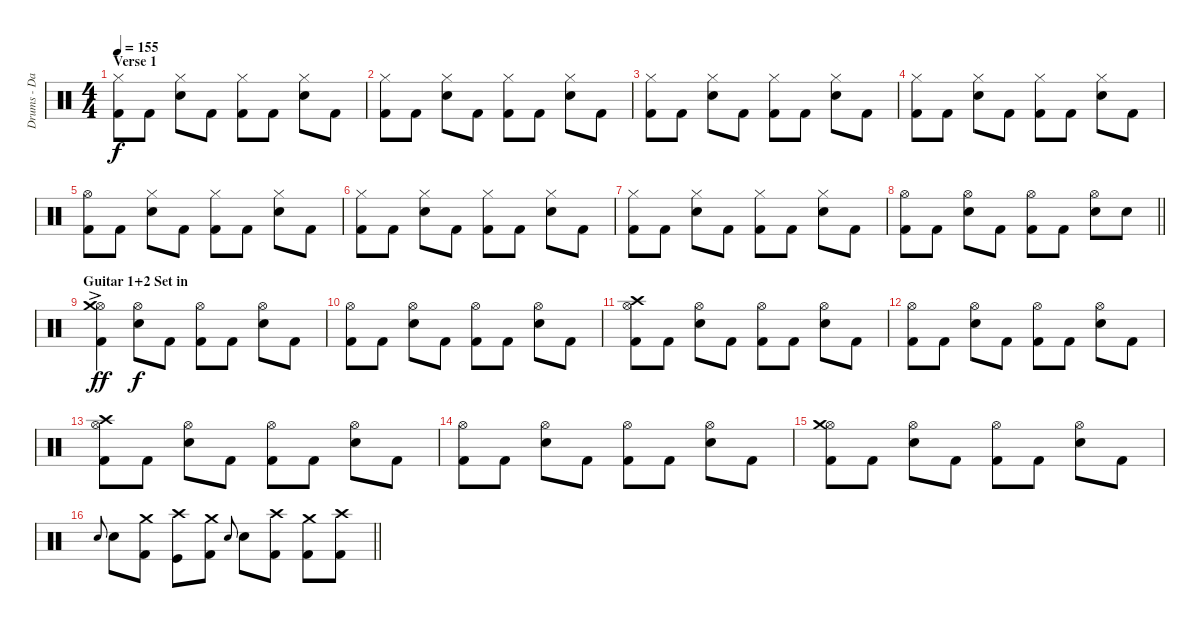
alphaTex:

\track ("Drums - Daniel Adair" "Drums - Da") {instrument percussion bank 1}
\staff {score}
\articulation defaults
\ts (4 4)
\section ("" "Verse 1")
\tempo 155
\clef neutral
\ks c
("Hi-Hat (closed)" "Kick (hit) 2").8{dy f} "Kick (hit) 2".8 ("Hi-Hat (closed)" "Snare (hit) 2").8 "Kick (hit) 2".8 ("Hi-Hat (closed)" "Kick (hit) 2").8 "Kick (hit) 2".8 ("Hi-Hat (closed)" "Snare (hit) 2").8 "Kick (hit) 2".8 |
("Hi-Hat (closed)" "Kick (hit) 2").8 "Kick (hit) 2".8 ("Hi-Hat (closed)" "Snare (hit) 2").8 "Kick (hit) 2".8 ("Hi-Hat (closed)" "Kick (hit) 2").8 "Kick (hit) 2".8 ("Hi-Hat (closed)" "Snare (hit) 2").8 "Kick (hit) 2".8 |
("Hi-Hat (closed)" "Kick (hit) 2").8 "Kick (hit) 2".8 ("Hi-Hat (closed)" "Snare (hit) 2").8 "Kick (hit) 2".8 ("Hi-Hat (closed)" "Kick (hit) 2").8 "Kick (hit) 2".8 ("Hi-Hat (closed)" "Snare (hit) 2").8 "Kick (hit) 2".8 |
("Hi-Hat (closed)" "Kick (hit) 2").8 "Kick (hit) 2".8 ("Hi-Hat (closed)" "Snare (hit) 2").8 "Kick (hit) 2".8 ("Hi-Hat (closed)" "Kick (hit) 2").8 "Kick (hit) 2".8 ("Hi-Hat (closed)" "Snare (hit) 2").8 "Kick (hit) 2".8 |
("Hi-Hat (open)" "Kick (hit) 2").8 "Kick (hit) 2".8 ("Hi-Hat (closed)" "Snare (hit) 2").8 "Kick (hit) 2".8 ("Hi-Hat (closed)" "Kick (hit) 2").8 "Kick (hit) 2".8 ("Hi-Hat (closed)" "Snare (hit) 2").8 "Kick (hit) 2".8 |
("Hi-Hat (closed)" "Kick (hit) 2").8 "Kick (hit) 2".8 ("Hi-Hat (closed)" "Snare (hit) 2").8 "Kick (hit) 2".8 ("Hi-Hat (closed)" "Kick (hit) 2").8 "Kick (hit) 2".8 ("Hi-Hat (closed)" "Snare (hit) 2").8 "Kick (hit) 2".8 |
("Hi-Hat (closed)" "Kick (hit) 2").8 "Kick (hit) 2".8 ("Hi-Hat (closed)" "Snare (hit) 2").8 "Kick (hit) 2".8 ("Hi-Hat (closed)" "Kick (hit) 2").8 "Kick (hit) 2".8 ("Hi-Hat (closed)" "Snare (hit) 2").8 "Kick (hit) 2".8 |
\barLineRight lightlight
("Hi-Hat (open)" "Kick (hit) 2").8 "Kick (hit) 2".8 ("Hi-Hat (open)" "Snare (hit) 2").8 "Kick (hit) 2".8 ("Hi-Hat (open)" "Kick (hit) 2").8 "Kick (hit) 2".8 ("Hi-Hat (open)" "Snare (hit) 2").8 "Snare (hit) 2".8 |
\section ("" "Guitar 1+2 Set in")
("Hi-Hat (open)"{ac} "Crash medium (hit)" "Kick (hit) 2").4{dy ff} ("Hi-Hat (open)" "Snare (hit) 2").8{dy f} "Kick (hit) 2".8 ("Hi-Hat (open)" "Kick (hit) 2").8 "Kick (hit) 2".8 ("Hi-Hat (open)" "Snare (hit) 2").8 "Kick (hit) 2".8 |
("Hi-Hat (open)" "Kick (hit) 2").8 "Kick (hit) 2".8 ("Hi-Hat (open)" "Snare (hit) 2").8 "Kick (hit) 2".8 ("Hi-Hat (open)" "Kick (hit) 2").8 "Kick (hit) 2".8 ("Hi-Hat (open)" "Snare (hit) 2").8 "Kick (hit) 2".8 |
("Hi-Hat (open)" "Crash high (hit)" "Kick (hit) 2").8 "Kick (hit) 2".8 ("Hi-Hat (open)" "Snare (hit) 2").8 "Kick (hit) 2".8 ("Hi-Hat (open)" "Kick (hit) 2").8 "Kick (hit) 2".8 ("Hi-Hat (open)" "Snare (hit) 2").8 "Kick (hit) 2".8 |
("Hi-Hat (open)" "Kick (hit) 2").8 "Kick (hit) 2".8 ("Hi-Hat (open)" "Snare (hit) 2").8 "Kick (hit) 2".8 ("Hi-Hat (open)" "Kick (hit) 2").8 "Kick (hit) 2".8 ("Hi-Hat (open)" "Snare (hit) 2").8 "Kick (hit) 2".8 |
("Hi-Hat (open)" "Crash high (hit)" "Kick (hit) 2").8 "Kick (hit) 2".8 ("Hi-Hat (open)" "Snare (hit) 2").8 "Kick (hit) 2".8 ("Hi-Hat (open)" "Kick (hit) 2").8 "Kick (hit) 2".8 ("Hi-Hat (open)" "Snare (hit) 2").8 "Kick (hit) 2".8 |
("Hi-Hat (open)" "Kick (hit) 2").8 "Kick (hit) 2".8 ("Hi-Hat (open)" "Snare (hit) 2").8 "Kick (hit) 2".8 ("Hi-Hat (open)" "Kick (hit) 2").8 "Kick (hit) 2".8 ("Hi-Hat (open)" "Snare (hit) 2").8 "Kick (hit) 2".8 |
("Hi-Hat (open)" "Crash medium (hit)" "Kick (hit) 2").8 "Kick (hit) 2".8 ("Hi-Hat (open)" "Snare (hit) 2").8 "Kick (hit) 2".8 ("Hi-Hat (open)" "Kick (hit) 2").8 "Kick (hit) 2".8 ("Hi-Hat (open)" "Snare (hit) 2").8 "Kick (hit) 2".8 |
\barLineRight lightlight "Snare (hit) 2".8{gr onbeat} "Snare (hit) 2".8
("Crash medium (hit)" "Kick (hit) 2").8 ("Crash high (hit)" "Kick (hit)").8 ("Crash medium (hit)" "Kick (hit) 2").8 "Snare (hit) 2".8{gr onbeat} "Snare (hit) 2".8 ("Crash high (hit)" "Kick (hit) 2").8 ("Crash medium (hit)" "Kick (hit) 2").8 ("Crash high (hit)" "Kick (hit) 2").8
